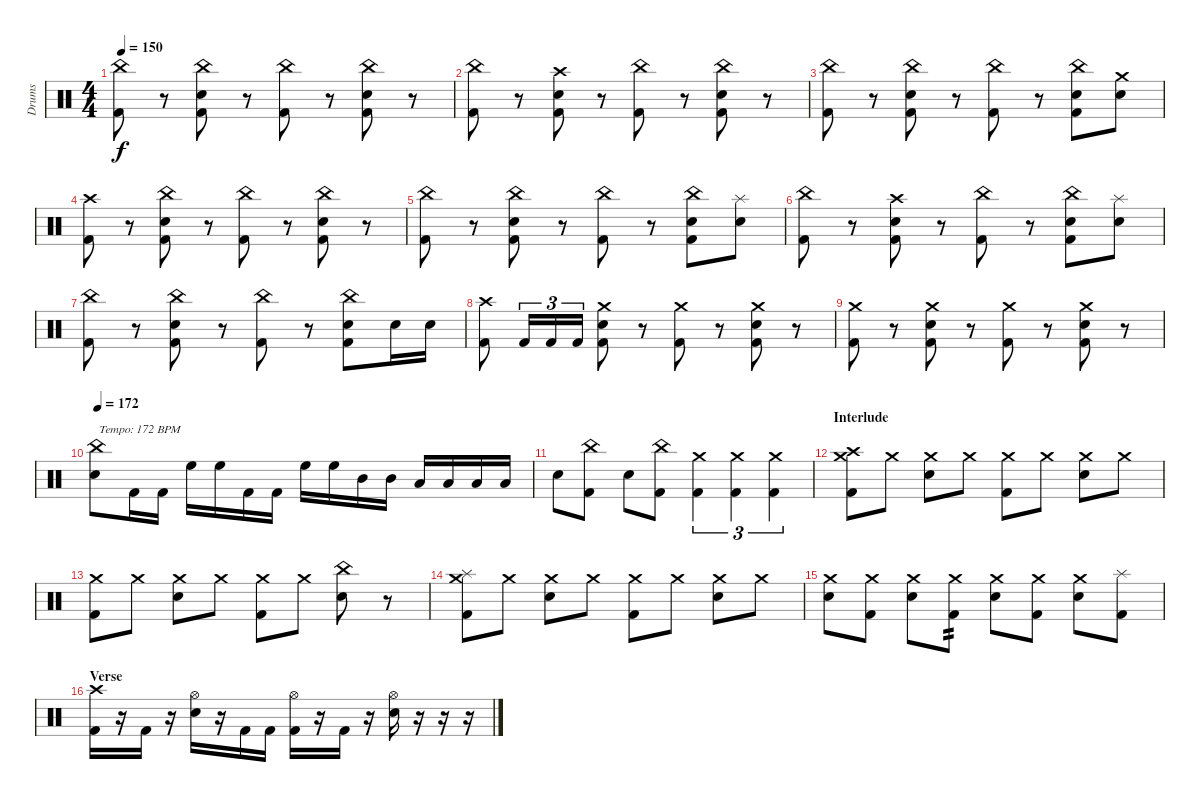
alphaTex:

\track ("Drums" "Drums") {instrument percussion}
\staff {score}
\articulation defaults
\ts (4 4)
\tempo 150
\clef neutral
\ks c
("China (hit)" "Kick (hit) 2").8{dy f} r.8 ("China (hit)" "Electric Snare (hit)" "Kick (hit) 2").8 r.8 ("China (hit)" "Kick (hit) 2").8 r.8 ("China (hit)" "Electric Snare (hit)" "Kick (hit) 2").8 r.8 |
("China (hit)" "Kick (hit) 2").8 r.8 ("Crash high (hit)" "Electric Snare (hit)" "Kick (hit) 2").8 r.8 ("China (hit)" "Kick (hit) 2").8 r.8 ("China (hit)" "Electric Snare (hit)" "Kick (hit) 2").8 r.8 |
("China (hit)" "Kick (hit) 2").8 r.8 ("China (hit)" "Electric Snare (hit)" "Kick (hit) 2").8 r.8 ("China (hit)" "Kick (hit) 2").8 r.8 ("China (hit)" "Electric Snare (hit)" "Kick (hit) 2").8 ("Crash medium (hit)" "Electric Snare (hit)").8 |
("Crash high (hit)" "Kick (hit) 2").8 r.8 ("China (hit)" "Electric Snare (hit)" "Kick (hit) 2").8 r.8 ("China (hit)" "Kick (hit) 2").8 r.8 ("China (hit)" "Electric Snare (hit)" "Kick (hit) 2").8 r.8 |
("China (hit)" "Kick (hit) 2").8 r.8 ("China (hit)" "Electric Snare (hit)" "Kick (hit) 2").8 r.8 ("China (hit)" "Kick (hit) 2").8 r.8 ("China (hit)" "Electric Snare (hit)" "Kick (hit) 2").8 ("Splash (hit)" "Electric Snare (hit)").8 |
("China (hit)" "Kick (hit) 2").8 r.8 ("Crash high (hit)" "Electric Snare (hit)" "Kick (hit) 2").8 r.8 ("China (hit)" "Kick (hit) 2").8 r.8 ("China (hit)" "Electric Snare (hit)" "Kick (hit) 2").8 ("Splash (hit)" "Electric Snare (hit)").8 |
("China (hit)" "Kick (hit) 2").8 r.8 ("China (hit)" "Electric Snare (hit)" "Kick (hit) 2").8 r.8 ("China (hit)" "Kick (hit) 2").8 r.8 ("China (hit)" "Electric Snare (hit)" "Kick (hit) 2").8 "Electric Snare (hit)".16 "Electric Snare (hit)".16 |
("Crash high (hit)" "Kick (hit) 2").8 "Kick (hit) 2".16{tu (3 2)} "Kick (hit) 2".16{tu (3 2)} "Kick (hit) 2".16{tu (3 2)} ("Crash medium (hit)" "Electric Snare (hit)" "Kick (hit) 2").8 r.8 ("Crash medium (hit)" "Kick (hit) 2").8 r.8 ("Crash medium (hit)" "Electric Snare (hit)" "Kick (hit) 2").8 r.8 |
("Crash medium (hit)" "Kick (hit) 2").8 r.8 ("Crash medium (hit)" "Electric Snare (hit)" "Kick (hit) 2").8 r.8 ("Crash medium (hit)" "Kick (hit) 2").8 r.8 ("Crash medium (hit)" "Electric Snare (hit)" "Kick (hit) 2").8 r.8 |
\tempo 172
("China (hit)" "Electric Snare (hit)").8{txt "Tempo: 172 BPM"} "Kick (hit) 2".16 "Kick (hit) 2".16 "High Floor Tom (hit)".16 "High Floor Tom (hit)".16 "Kick (hit) 2".16 "Kick (hit) 2".16 "High Floor Tom (hit)".16 "High Floor Tom (hit)".16 "Mid Tom (hit)".16 "Mid Tom (hit)".16 "Low Tom (hit)".16 "Low Tom (hit)".16 "Low Floor Tom (hit)".16 "Low Floor Tom (hit)".16 |
"Electric Snare (hit)".8 ("China (hit)" "Kick (hit) 2").8 "Electric Snare (hit)".8 ("China (hit)" "Kick (hit) 2").8 ("Crash medium (hit)" "Kick (hit) 2").4{tu (3 2)} ("Crash medium (hit)" "Kick (hit) 2").4{tu (3 2)} ("Crash medium (hit)" "Kick (hit) 2").4{tu (3 2)} |
\section ("" "Interlude")
("Crash medium (hit)" "Crash high (hit)" "Kick (hit) 2").8 "Crash medium (hit)".8 ("Crash medium (hit)" "Electric Snare (hit)").8 "Crash medium (hit)".8 ("Crash medium (hit)" "Kick (hit) 2").8 "Crash medium (hit)".8 ("Crash medium (hit)" "Electric Snare (hit)").8 "Crash medium (hit)".8 |
("Crash medium (hit)" "Kick (hit) 2").8 "Crash medium (hit)".8 ("Crash medium (hit)" "Electric Snare (hit)").8 "Crash medium (hit)".8 ("Crash medium (hit)" "Kick (hit) 2").8 "Crash medium (hit)".8 ("China (hit)" "Electric Snare (hit)").8 r.8 |
("Crash medium (hit)" "Splash (hit)" "Kick (hit) 2").8 "Crash medium (hit)".8 ("Crash medium (hit)" "Electric Snare (hit)").8 "Crash medium (hit)".8 ("Crash medium (hit)" "Kick (hit) 2").8 "Crash medium (hit)".8 ("Crash medium (hit)" "Electric Snare (hit)").8 "Crash medium (hit)".8 |
("Crash medium (hit)" "Electric Snare (hit)").8 ("Crash medium (hit)" "Kick (hit) 2").8 ("Crash medium (hit)" "Electric Snare (hit)").8 ("Crash medium (hit)" "Kick (hit) 2").8{tp 2} ("Crash medium (hit)" "Electric Snare (hit)").8 ("Crash medium (hit)" "Kick (hit) 2").8 ("Crash medium (hit)" "Electric Snare (hit)").8 ("Splash (hit)" "Kick (hit) 2").8 |
\section ("" "Verse")
("Crash high (hit)" "Kick (hit) 2").16 r.16 "Kick (hit) 2".16 r.16 ("Hi-Hat (open)" "Electric Snare (hit)").16 r.16 "Kick (hit) 2".16 "Kick (hit) 2".16 ("Hi-Hat (open)" "Kick (hit) 2").16 r.16 "Kick (hit) 2".16 r.16 ("Hi-Hat (open)" "Electric Snare (hit)").16 r.16 r.16 r.16
